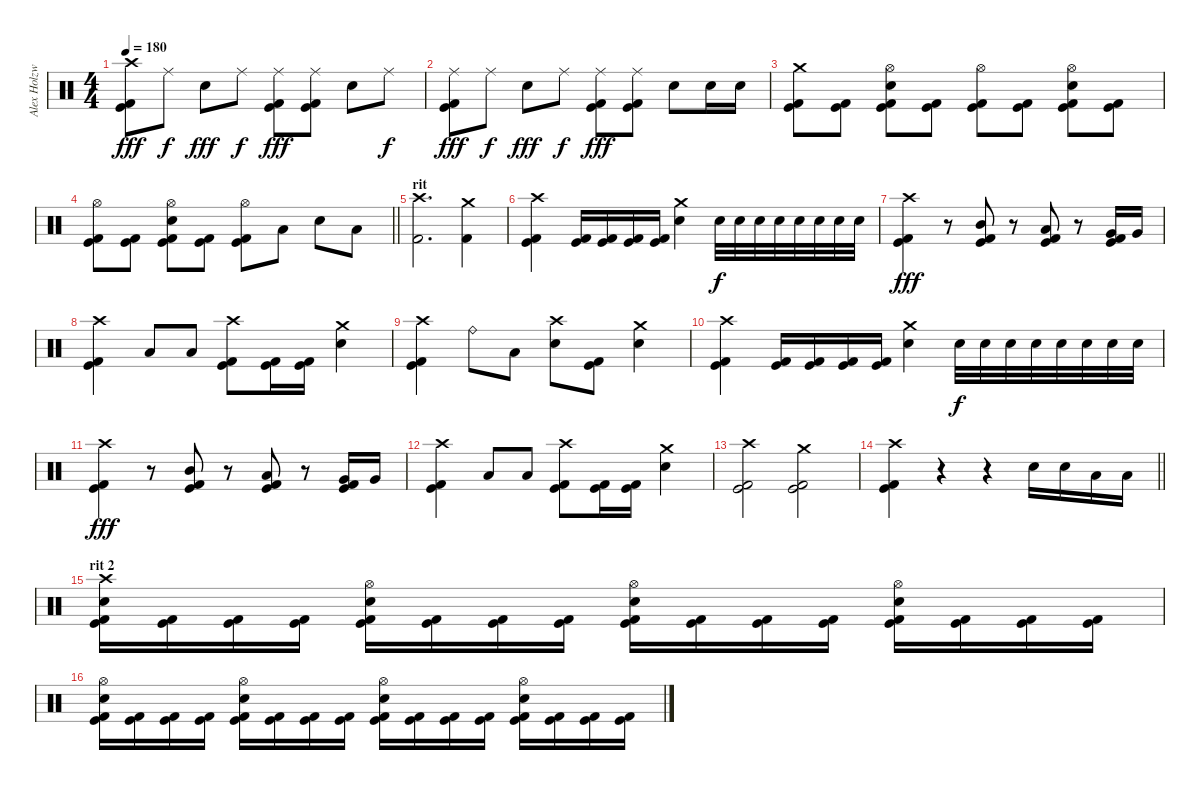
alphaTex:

\track ("Alex Holzwarth" "Alex Holzw") {instrument percussion}
\staff {score}
\articulation defaults
\ts (4 4)
\tempo 180
\clef neutral
\ks c
("Crash high (hit)" "Kick (hit)" "Kick (hit) 2").8{dy fff volume 16} "Ride (middle)".8{dy f} "Snare (hit) 2".8{dy fff} "Ride (middle)".8{dy f} ("Ride (middle)" "Kick (hit)" "Kick (hit) 2").8{dy fff} ("Ride (middle)" "Kick (hit)" "Kick (hit) 2").8 "Snare (hit) 2".8 "Ride (middle)".8{dy f} |
("Ride (middle)" "Kick (hit)" "Kick (hit) 2").8{dy fff} "Ride (middle)".8{dy f} "Snare (hit) 2".8{dy fff} "Ride (middle)".8{dy f} ("Ride (middle)" "Kick (hit)" "Kick (hit) 2").8{dy fff} ("Ride (middle)" "Kick (hit)" "Kick (hit) 2").8 "Snare (hit) 2".8 "Snare (hit) 2".16 "Snare (hit) 2".16 |
("Crash medium (hit)" "Kick (hit)" "Kick (hit) 2").8 ("Kick (hit)" "Kick (hit) 2").8 ("Hi-Hat (open)" "Snare (hit) 2" "Kick (hit)" "Kick (hit) 2").8 ("Kick (hit)" "Kick (hit) 2").8 ("Hi-Hat (open)" "Kick (hit)" "Kick (hit) 2").8 ("Kick (hit)" "Kick (hit) 2").8 ("Hi-Hat (open)" "Snare (hit) 2" "Kick (hit)" "Kick (hit) 2").8 ("Kick (hit)" "Kick (hit) 2").8 |
\barLineRight lightlight
("Hi-Hat (open)" "Kick (hit)" "Kick (hit) 2").8 ("Kick (hit)" "Kick (hit) 2").8 ("Hi-Hat (open)" "Snare (hit) 2" "Kick (hit)" "Kick (hit) 2").8 ("Kick (hit)" "Kick (hit) 2").8 ("Hi-Hat (open)" "Kick (hit)" "Kick (hit) 2").8 "Low Tom (hit)".8 "Snare (hit) 2".8 "Low Tom (hit)".8 |
\section ("" "rit")
("Crash high (hit)" "Kick (hit) 2").2{d} ("Crash medium (hit)" "Kick (hit) 2").4 |
("Crash high (hit)" "Kick (hit)" "Kick (hit) 2").4 ("Kick (hit)" "Kick (hit) 2").16 ("Kick (hit)" "Kick (hit) 2").16 ("Kick (hit)" "Kick (hit) 2").16 ("Kick (hit)" "Kick (hit) 2").16 ("Crash medium (hit)" "Snare (hit) 2").4 "Snare (hit) 2".32{dy f} "Snare (hit) 2".32 "Snare (hit) 2".32 "Snare (hit) 2".32 "Snare (hit) 2".32 "Snare (hit) 2".32 "Snare (hit) 2".32 "Snare (hit) 2".32 |
("Crash high (hit)" "Kick (hit)" "Kick (hit) 2").4{dy fff} r.8 ("Mid Tom (hit)" "Kick (hit)" "Kick (hit) 2").8 r.8 ("Low Tom (hit)" "Kick (hit)" "Kick (hit) 2").8 r.8 ("Very Low Tom (hit)" "Kick (hit)" "Kick (hit) 2").16 "Very Low Tom (hit)".16 |
("Crash high (hit)" "Kick (hit)" "Kick (hit) 2").4 "Low Floor Tom (hit)".8 "Low Tom (hit)".8 ("Crash high (hit)" "Kick (hit)" "Kick (hit) 2").8 ("Kick (hit)" "Kick (hit) 2").16 ("Kick (hit)" "Kick (hit) 2").16 ("Crash medium (hit)" "Snare (hit) 2").4 |
("Crash high (hit)" "Kick (hit)" "Kick (hit) 2").4 "Ride (bell)".8 "Low Tom (hit)".8 ("Crash high (hit)" "Snare (hit) 2").8 ("Kick (hit)" "Kick (hit) 2").8 ("Crash medium (hit)" "Snare (hit) 2").4 |
("Crash high (hit)" "Kick (hit)" "Kick (hit) 2").4 ("Kick (hit)" "Kick (hit) 2").16 ("Kick (hit)" "Kick (hit) 2").16 ("Kick (hit)" "Kick (hit) 2").16 ("Kick (hit)" "Kick (hit) 2").16 ("Crash medium (hit)" "Snare (hit) 2").4 "Snare (hit) 2".32{dy f} "Snare (hit) 2".32 "Snare (hit) 2".32 "Snare (hit) 2".32 "Snare (hit) 2".32 "Snare (hit) 2".32 "Snare (hit) 2".32 "Snare (hit) 2".32 |
("Crash high (hit)" "Kick (hit)" "Kick (hit) 2").4{dy fff} r.8 ("Mid Tom (hit)" "Kick (hit)" "Kick (hit) 2").8 r.8 ("Low Tom (hit)" "Kick (hit)" "Kick (hit) 2").8 r.8 ("Very Low Tom (hit)" "Kick (hit)" "Kick (hit) 2").16 "Very Low Tom (hit)".16 |
("Crash high (hit)" "Kick (hit)" "Kick (hit) 2").4 "Low Floor Tom (hit)".8 "Low Tom (hit)".8 ("Crash high (hit)" "Kick (hit)" "Kick (hit) 2").8 ("Kick (hit)" "Kick (hit) 2").16 ("Kick (hit)" "Kick (hit) 2").16 ("Crash medium (hit)" "Snare (hit) 2").4 |
("Crash high (hit)" "Kick (hit)" "Kick (hit) 2").2 ("Crash medium (hit)" "Kick (hit)" "Kick (hit) 2").2 |
\barLineRight lightlight
("Crash high (hit)" "Kick (hit)" "Kick (hit) 2").4 r.4 r.4 "Snare (hit) 2".16 "Snare (hit) 2".16 "Low Tom (hit)".16 "Low Tom (hit)".16 |
\section ("" "rit 2")
("Crash high (hit)" "Snare (hit) 2" "Kick (hit)" "Kick (hit) 2").16 ("Kick (hit)" "Kick (hit) 2").16 ("Kick (hit)" "Kick (hit) 2").16 ("Kick (hit)" "Kick (hit) 2").16 ("Hi-Hat (open)" "Snare (hit) 2" "Kick (hit)" "Kick (hit) 2").16 ("Kick (hit)" "Kick (hit) 2").16 ("Kick (hit)" "Kick (hit) 2").16 ("Kick (hit)" "Kick (hit) 2").16 ("Hi-Hat (open)" "Snare (hit) 2" "Kick (hit)" "Kick (hit) 2").16 ("Kick (hit)" "Kick (hit) 2").16 ("Kick (hit)" "Kick (hit) 2").16 ("Kick (hit)" "Kick (hit) 2").16 ("Hi-Hat (open)" "Snare (hit) 2" "Kick (hit)" "Kick (hit) 2").16 ("Kick (hit)" "Kick (hit) 2").16 ("Kick (hit)" "Kick (hit) 2").16 ("Kick (hit)" "Kick (hit) 2").16 |
("Hi-Hat (open)" "Snare (hit) 2" "Kick (hit)" "Kick (hit) 2").16 ("Kick (hit)" "Kick (hit) 2").16 ("Kick (hit)" "Kick (hit) 2").16 ("Kick (hit)" "Kick (hit) 2").16 ("Hi-Hat (open)" "Snare (hit) 2" "Kick (hit)" "Kick (hit) 2").16 ("Kick (hit)" "Kick (hit) 2").16 ("Kick (hit)" "Kick (hit) 2").16 ("Kick (hit)" "Kick (hit) 2").16 ("Hi-Hat (open)" "Snare (hit) 2" "Kick (hit)" "Kick (hit) 2").16 ("Kick (hit)" "Kick (hit) 2").16 ("Kick (hit)" "Kick (hit) 2").16 ("Kick (hit)" "Kick (hit) 2").16 ("Hi-Hat (open)" "Snare (hit) 2" "Kick (hit)" "Kick (hit) 2").16 ("Kick (hit)" "Kick (hit) 2").16 ("Kick (hit)" "Kick (hit) 2").16 ("Kick (hit)" "Kick (hit) 2").16
